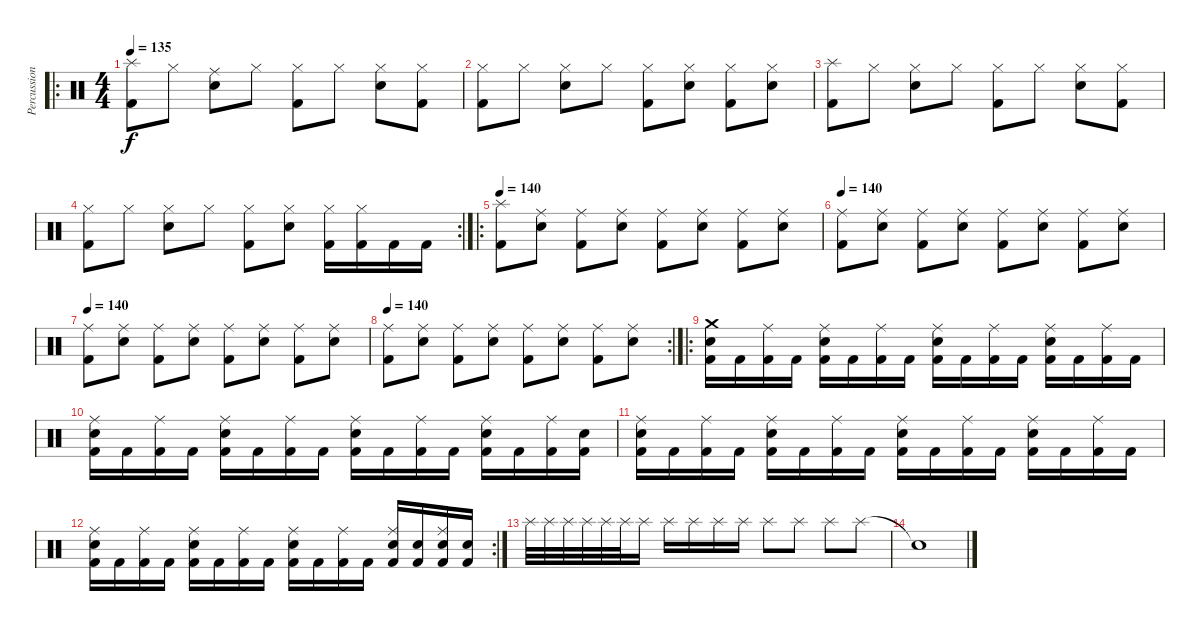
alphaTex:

\track ("Percussions" "Percussion") {instrument percussion}
\staff {score}
\articulation defaults
\ro
\ts (4 4)
\tempo 135
\clef neutral
\ks c
("Splash (hit)" "Kick (hit) 2").8{dy f} "Hi-Hat (closed)".8 ("Ride (middle)" "Snare (hit) 2").8 "Hi-Hat (closed)".8 ("Hi-Hat (closed)" "Kick (hit) 2").8 "Hi-Hat (closed)".8 ("Hi-Hat (closed)" "Snare (hit) 2").8 ("Hi-Hat (closed)" "Kick (hit) 2").8 |
("Hi-Hat (closed)" "Kick (hit) 2").8 "Hi-Hat (closed)".8 ("Hi-Hat (closed)" "Snare (hit) 2").8 "Hi-Hat (closed)".8 ("Hi-Hat (closed)" "Kick (hit) 2").8 ("Hi-Hat (closed)" "Snare (hit) 2").8 ("Hi-Hat (closed)" "Kick (hit) 2").8 ("Hi-Hat (closed)" "Snare (hit) 2").8 |
("Splash (hit)" "Kick (hit) 2").8 "Hi-Hat (closed)".8 ("Hi-Hat (closed)" "Snare (hit) 2").8 "Hi-Hat (closed)".8 ("Hi-Hat (closed)" "Kick (hit) 2").8 "Hi-Hat (closed)".8 ("Hi-Hat (closed)" "Snare (hit) 2").8 ("Hi-Hat (closed)" "Kick (hit) 2").8 |
\rc 2
("Hi-Hat (closed)" "Kick (hit) 2").8 "Hi-Hat (closed)".8 ("Hi-Hat (closed)" "Snare (hit) 2").8 "Hi-Hat (closed)".8 ("Hi-Hat (closed)" "Kick (hit) 2").8 ("Hi-Hat (closed)" "Snare (hit) 2").8 ("Hi-Hat (closed)" "Kick (hit) 2").16 ("Hi-Hat (closed)" "Kick (hit) 2").16 "Kick (hit) 2".16 "Kick (hit) 2".16 |
\ro
\tempo 140
("Splash (hit)" "Kick (hit) 2").8 ("Ride (middle)" "Snare (hit) 2").8 ("Ride (middle)" "Kick (hit) 2").8 ("Ride (middle)" "Snare (hit) 2").8 ("Ride (middle)" "Kick (hit) 2").8 ("Ride (middle)" "Snare (hit) 2").8 ("Ride (middle)" "Kick (hit) 2").8 ("Ride (middle)" "Snare (hit) 2").8 |
\tempo 140
("Ride (middle)" "Kick (hit) 2").8 ("Ride (middle)" "Snare (hit) 2").8 ("Ride (middle)" "Kick (hit) 2").8 ("Ride (middle)" "Snare (hit) 2").8 ("Ride (middle)" "Kick (hit) 2").8 ("Ride (middle)" "Snare (hit) 2").8 ("Ride (middle)" "Kick (hit) 2").8 ("Ride (middle)" "Snare (hit) 2").8 |
\tempo 140
("Ride (middle)" "Kick (hit) 2").8 ("Ride (middle)" "Snare (hit) 2").8 ("Ride (middle)" "Kick (hit) 2").8 ("Ride (middle)" "Snare (hit) 2").8 ("Ride (middle)" "Kick (hit) 2").8 ("Ride (middle)" "Snare (hit) 2").8 ("Ride (middle)" "Kick (hit) 2").8 ("Ride (middle)" "Snare (hit) 2").8 |
\rc 2
\tempo 140
("Ride (middle)" "Kick (hit) 2").8 ("Ride (middle)" "Snare (hit) 2").8 ("Ride (middle)" "Kick (hit) 2").8 ("Ride (middle)" "Snare (hit) 2").8 ("Ride (middle)" "Kick (hit) 2").8 ("Ride (middle)" "Snare (hit) 2").8 ("Ride (middle)" "Kick (hit) 2").8 ("Ride (middle)" "Snare (hit) 2").8 |
\ro
("Crash medium (hit)" "Snare (hit) 2" "Kick (hit) 2").16 "Kick (hit) 2".16 ("Ride (middle)" "Kick (hit) 2").16 "Kick (hit) 2".16 ("Ride (middle)" "Snare (hit) 2" "Kick (hit) 2").16 "Kick (hit) 2".16 ("Ride (middle)" "Kick (hit) 2").16 "Kick (hit) 2".16 ("Ride (middle)" "Snare (hit) 2" "Kick (hit) 2").16 "Kick (hit) 2".16 ("Ride (middle)" "Kick (hit) 2").16 "Kick (hit) 2".16 ("Ride (middle)" "Snare (hit) 2" "Kick (hit) 2").16 "Kick (hit) 2".16 ("Ride (middle)" "Kick (hit) 2").16 "Kick (hit) 2".16 |
("Ride (middle)" "Snare (hit) 2" "Kick (hit) 2").16 "Kick (hit) 2".16 ("Ride (middle)" "Kick (hit) 2").16 "Kick (hit) 2".16 ("Ride (middle)" "Snare (hit) 2" "Kick (hit) 2").16 "Kick (hit) 2".16 ("Ride (middle)" "Kick (hit) 2").16 "Kick (hit) 2".16 ("Ride (middle)" "Snare (hit) 2" "Kick (hit) 2").16 "Kick (hit) 2".16 ("Ride (middle)" "Kick (hit) 2").16 "Kick (hit) 2".16 ("Ride (middle)" "Snare (hit) 2" "Kick (hit) 2").16 "Kick (hit) 2".16 ("Ride (middle)" "Kick (hit) 2").16 ("Snare (hit) 2" "Kick (hit) 2").16 |
("Ride (middle)" "Snare (hit) 2" "Kick (hit) 2").16 "Kick (hit) 2".16 ("Ride (middle)" "Kick (hit) 2").16 "Kick (hit) 2".16 ("Ride (middle)" "Snare (hit) 2" "Kick (hit) 2").16 "Kick (hit) 2".16 ("Ride (middle)" "Kick (hit) 2").16 "Kick (hit) 2".16 ("Ride (middle)" "Snare (hit) 2" "Kick (hit) 2").16 "Kick (hit) 2".16 ("Ride (middle)" "Kick (hit) 2").16 "Kick (hit) 2".16 ("Ride (middle)" "Snare (hit) 2" "Kick (hit) 2").16 "Kick (hit) 2".16 ("Ride (middle)" "Kick (hit) 2").16 "Kick (hit) 2".16 |
\rc 2
("Ride (middle)" "Snare (hit) 2" "Kick (hit) 2").16 "Kick (hit) 2".16 ("Ride (middle)" "Kick (hit) 2").16 "Kick (hit) 2".16 ("Ride (middle)" "Snare (hit) 2" "Kick (hit) 2").16 "Kick (hit) 2".16 ("Ride (middle)" "Kick (hit) 2").16 "Kick (hit) 2".16 ("Ride (middle)" "Snare (hit) 2" "Kick (hit) 2").16 "Kick (hit) 2".16 ("Ride (middle)" "Kick (hit) 2").16 "Kick (hit) 2".16 ("Ride (middle)" "Snare (hit) 2" "Kick (hit) 2").16 ("Snare (hit) 2" "Kick (hit) 2").16 ("Ride (middle)" "Snare (hit) 2" "Kick (hit) 2").16 ("Snare (hit) 2" "Kick (hit) 2").16 |
"Splash (hit)".32 "Splash (hit)".32 "Splash (hit)".32 "Splash (hit)".32 "Splash (hit)".32 "Splash (hit)".32 "Splash (hit)".16 "Splash (hit)".16 "Splash (hit)".16 "Splash (hit)".16 "Splash (hit)".16 "Splash (hit)".8 "Splash (hit)".8 "Splash (hit)".8 "Splash (hit)".8 |
"Snare (hit)"{t}.1
